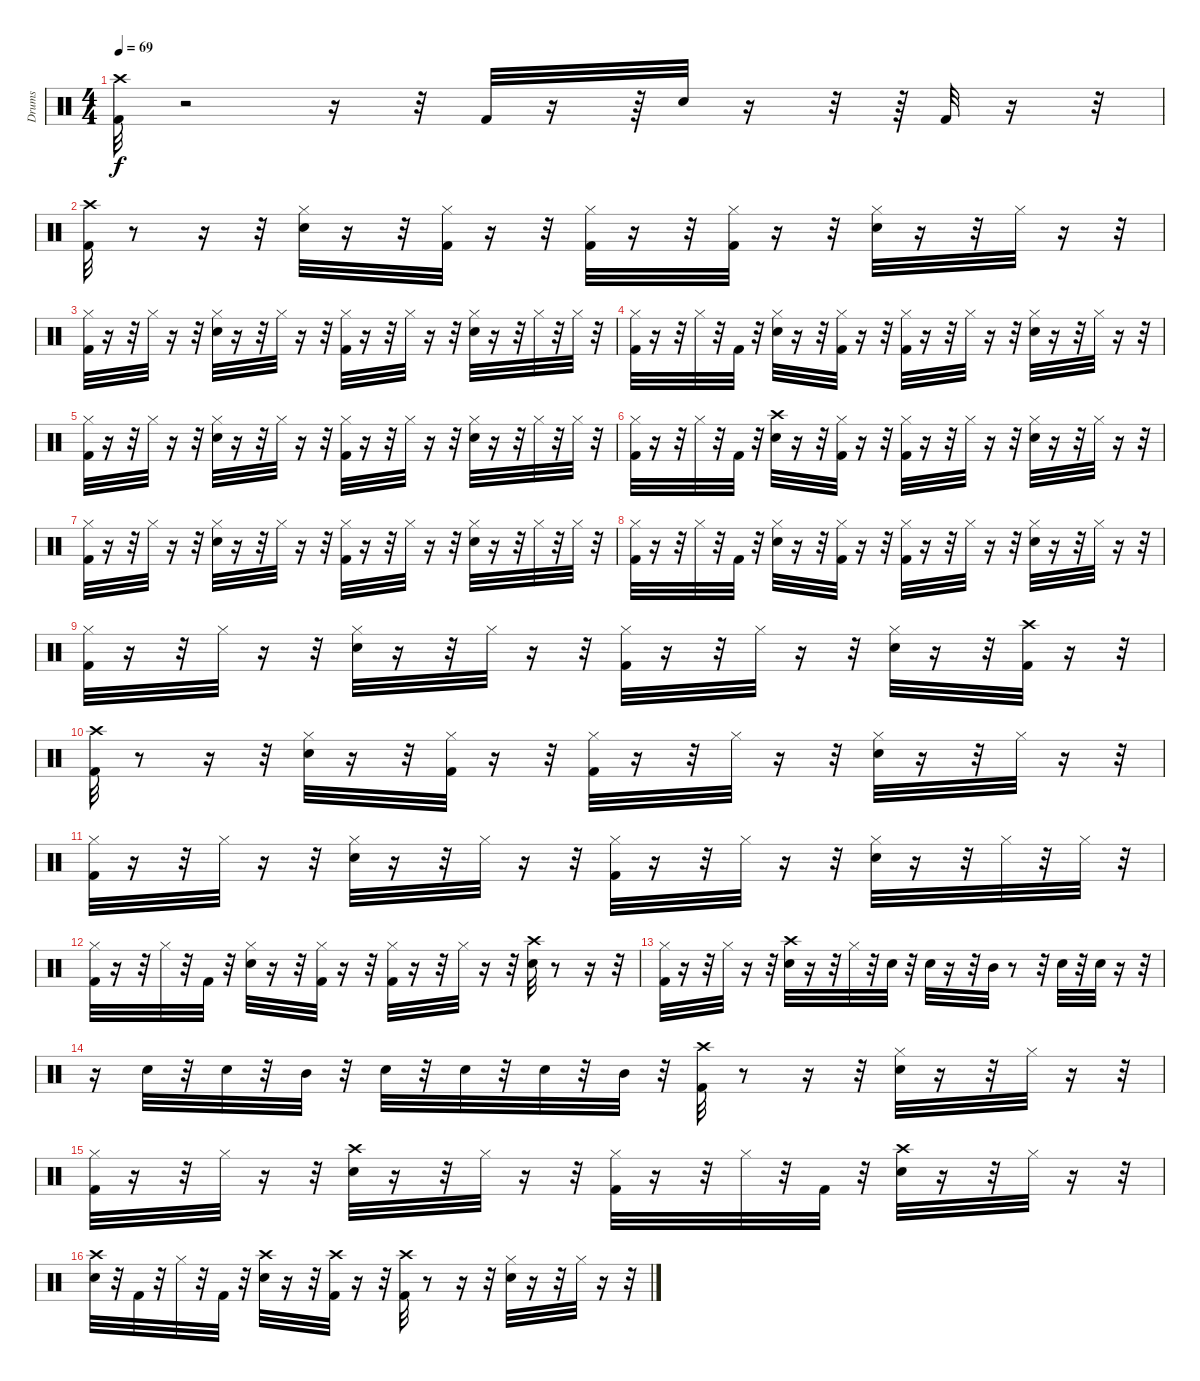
\track ("Drums" "Drums") {instrument percussion}
\staff {score}
\articulation defaults
\ts (4 4)
\tempo 69
\clef neutral
\ks c
("Crash high (hit)" "Kick (hit) 2").32{dy f} r.2 r.16 r.32 "Kick (hit) 2".32 r.16 r.64 "Snare (hit) 2".32 r.16 r.32 r.64 "Kick (hit) 2".32 r.16 r.32 |
("Kick (hit) 2" "Crash high (hit)").32 r.8 r.16 r.32 ("Hi-Hat (closed)" "Snare (hit) 2").32 r.16 r.32 ("Hi-Hat (closed)" "Kick (hit) 2").32 r.16 r.32 ("Hi-Hat (closed)" "Kick (hit) 2").32 r.16 r.32 ("Hi-Hat (closed)" "Kick (hit) 2").32 r.16 r.32 ("Hi-Hat (closed)" "Snare (hit) 2").32 r.16 r.32 "Hi-Hat (closed)".32 r.16 r.32 |
("Hi-Hat (closed)" "Kick (hit) 2").32 r.16 r.32 "Hi-Hat (closed)".32 r.16 r.32 ("Snare (hit) 2" "Hi-Hat (closed)").32 r.16 r.32 "Hi-Hat (closed)".32 r.16 r.32 ("Hi-Hat (closed)" "Kick (hit) 2").32 r.16 r.32 "Hi-Hat (closed)".32 r.16 r.32 ("Hi-Hat (closed)" "Snare (hit) 2").32 r.16 r.32 "Hi-Hat (closed)".32 r.32 "Hi-Hat (closed)".32 r.32 |
("Hi-Hat (closed)" "Kick (hit) 2").32 r.16 r.32 "Hi-Hat (closed)".32 r.32 "Kick (hit) 2".32 r.32 ("Snare (hit) 2" "Hi-Hat (closed)").32 r.16 r.32 ("Kick (hit) 2" "Hi-Hat (closed)").32 r.16 r.32 ("Hi-Hat (closed)" "Kick (hit) 2").32 r.16 r.32 "Hi-Hat (closed)".32 r.16 r.32 ("Snare (hit) 2" "Hi-Hat (closed)").32 r.16 r.32 "Hi-Hat (closed)".32 r.16 r.32 |
("Hi-Hat (closed)" "Kick (hit) 2").32 r.16 r.32 "Hi-Hat (closed)".32 r.16 r.32 ("Snare (hit) 2" "Hi-Hat (closed)").32 r.16 r.32 "Hi-Hat (closed)".32 r.16 r.32 ("Kick (hit) 2" "Hi-Hat (closed)").32 r.16 r.32 "Hi-Hat (closed)".32 r.16 r.32 ("Hi-Hat (closed)" "Snare (hit) 2").32 r.16 r.32 "Hi-Hat (closed)".32 r.32 "Hi-Hat (closed)".32 r.32 |
("Hi-Hat (closed)" "Kick (hit) 2").32 r.16 r.32 "Hi-Hat (closed)".32 r.32 "Kick (hit) 2".32 r.32 ("Crash high (hit)" "Snare (hit) 2").32 r.16 r.32 ("Hi-Hat (closed)" "Kick (hit) 2").32 r.16 r.32 ("Hi-Hat (closed)" "Kick (hit) 2").32 r.16 r.32 "Hi-Hat (closed)".32 r.16 r.32 ("Snare (hit) 2" "Hi-Hat (closed)").32 r.16 r.32 "Hi-Hat (closed)".32 r.16 r.32 |
("Hi-Hat (closed)" "Kick (hit) 2").32 r.16 r.32 "Hi-Hat (closed)".32 r.16 r.32 ("Snare (hit) 2" "Hi-Hat (closed)").32 r.16 r.32 "Hi-Hat (closed)".32 r.16 r.32 ("Kick (hit) 2" "Hi-Hat (closed)").32 r.16 r.32 "Hi-Hat (closed)".32 r.16 r.32 ("Hi-Hat (closed)" "Snare (hit) 2").32 r.16 r.32 "Hi-Hat (closed)".32 r.32 "Hi-Hat (closed)".32 r.32 |
("Hi-Hat (closed)" "Kick (hit) 2").32 r.16 r.32 "Hi-Hat (closed)".32 r.32 "Kick (hit) 2".32 r.32 ("Snare (hit) 2" "Hi-Hat (closed)").32 r.16 r.32 ("Kick (hit) 2" "Hi-Hat (closed)").32 r.16 r.32 ("Hi-Hat (closed)" "Kick (hit) 2").32 r.16 r.32 "Hi-Hat (closed)".32 r.16 r.32 ("Snare (hit) 2" "Hi-Hat (closed)").32 r.16 r.32 "Hi-Hat (closed)".32 r.16 r.32 |
("Hi-Hat (closed)" "Kick (hit) 2").32 r.16 r.32 "Hi-Hat (closed)".32 r.16 r.32 ("Snare (hit) 2" "Hi-Hat (closed)").32 r.16 r.32 "Hi-Hat (closed)".32 r.16 r.32 ("Hi-Hat (closed)" "Kick (hit) 2").32 r.16 r.32 "Hi-Hat (closed)".32 r.16 r.32 ("Snare (hit) 2" "Hi-Hat (closed)").32 r.16 r.32 ("Crash high (hit)" "Kick (hit) 2").32 r.16 r.32 |
("Kick (hit) 2" "Crash high (hit)").32 r.8 r.16 r.32 ("Hi-Hat (closed)" "Snare (hit) 2").32 r.16 r.32 ("Hi-Hat (closed)" "Kick (hit) 2").32 r.16 r.32 ("Hi-Hat (closed)" "Kick (hit) 2").32 r.16 r.32 "Hi-Hat (closed)".32 r.16 r.32 ("Snare (hit) 2" "Hi-Hat (closed)").32 r.16 r.32 "Hi-Hat (closed)".32 r.16 r.32 |
("Kick (hit) 2" "Hi-Hat (closed)").32 r.16 r.32 "Hi-Hat (closed)".32 r.16 r.32 ("Snare (hit) 2" "Hi-Hat (closed)").32 r.16 r.32 "Hi-Hat (closed)".32 r.16 r.32 ("Hi-Hat (closed)" "Kick (hit) 2").32 r.16 r.32 "Hi-Hat (closed)".32 r.16 r.32 ("Snare (hit) 2" "Hi-Hat (closed)").32 r.16 r.32 "Hi-Hat (closed)".32 r.32 "Hi-Hat (closed)".32 r.32 |
("Hi-Hat (closed)" "Kick (hit) 2").32 r.16 r.32 "Hi-Hat (closed)".32 r.32 "Kick (hit) 2".32 r.32 ("Snare (hit) 2" "Hi-Hat (closed)").32 r.16 r.32 ("Hi-Hat (closed)" "Kick (hit) 2").32 r.16 r.32 ("Hi-Hat (closed)" "Kick (hit) 2").32 r.16 r.32 "Hi-Hat (closed)".32 r.16 r.32 ("Crash high (hit)" "Snare (hit) 2").32 r.8 r.16 r.32 |
("Kick (hit) 2" "Hi-Hat (closed)").32 r.16 r.32 "Hi-Hat (closed)".32 r.16 r.32 ("Crash high (hit)" "Snare (hit) 2").32 r.16 r.32 "Hi-Hat (closed)".32 r.32 "Snare (hit) 2".32 r.32 "Snare (hit) 2".32 r.16 r.32 "Mid Tom (hit)".32 r.8 r.32 "Snare (hit) 2".32 r.32 "Snare (hit) 2".32 r.16 r.32 |
r.16 "Snare (hit) 2".32 r.32 "Snare (hit) 2".32 r.32 "Mid Tom (hit)".32 r.32 "Snare (hit) 2".32 r.32 "Snare (hit) 2".32 r.32 "Snare (hit) 2".32 r.32 "Mid Tom (hit)".32 r.32 ("Crash high (hit)" "Kick (hit) 2").32 r.8 r.16 r.32 ("Hi-Hat (closed)" "Snare (hit) 2").32 r.16 r.32 "Hi-Hat (closed)".32 r.16 r.32 |
("Kick (hit) 2" "Hi-Hat (closed)").32 r.16 r.32 "Hi-Hat (closed)".32 r.16 r.32 ("Crash high (hit)" "Snare (hit) 2").32 r.16 r.32 "Hi-Hat (closed)".32 r.16 r.32 ("Hi-Hat (closed)" "Kick (hit) 2").32 r.16 r.32 "Hi-Hat (closed)".32 r.32 "Kick (hit) 2".32 r.32 ("Crash high (hit)" "Snare (hit) 2").32 r.16 r.32 "Hi-Hat (closed)".32 r.16 r.32 |
("Crash high (hit)" "Snare (hit) 2").32 r.32 "Kick (hit) 2".32 r.32 "Hi-Hat (closed)".32 r.32 "Kick (hit) 2".32 r.32 ("Crash high (hit)" "Snare (hit) 2").32 r.16 r.32 ("Crash high (hit)" "Kick (hit) 2").32 r.16 r.32 ("Crash high (hit)" "Kick (hit) 2").32 r.8 r.16 r.32 ("Hi-Hat (closed)" "Snare (hit) 2").32 r.16 r.32 "Hi-Hat (closed)".32 r.16 r.32
